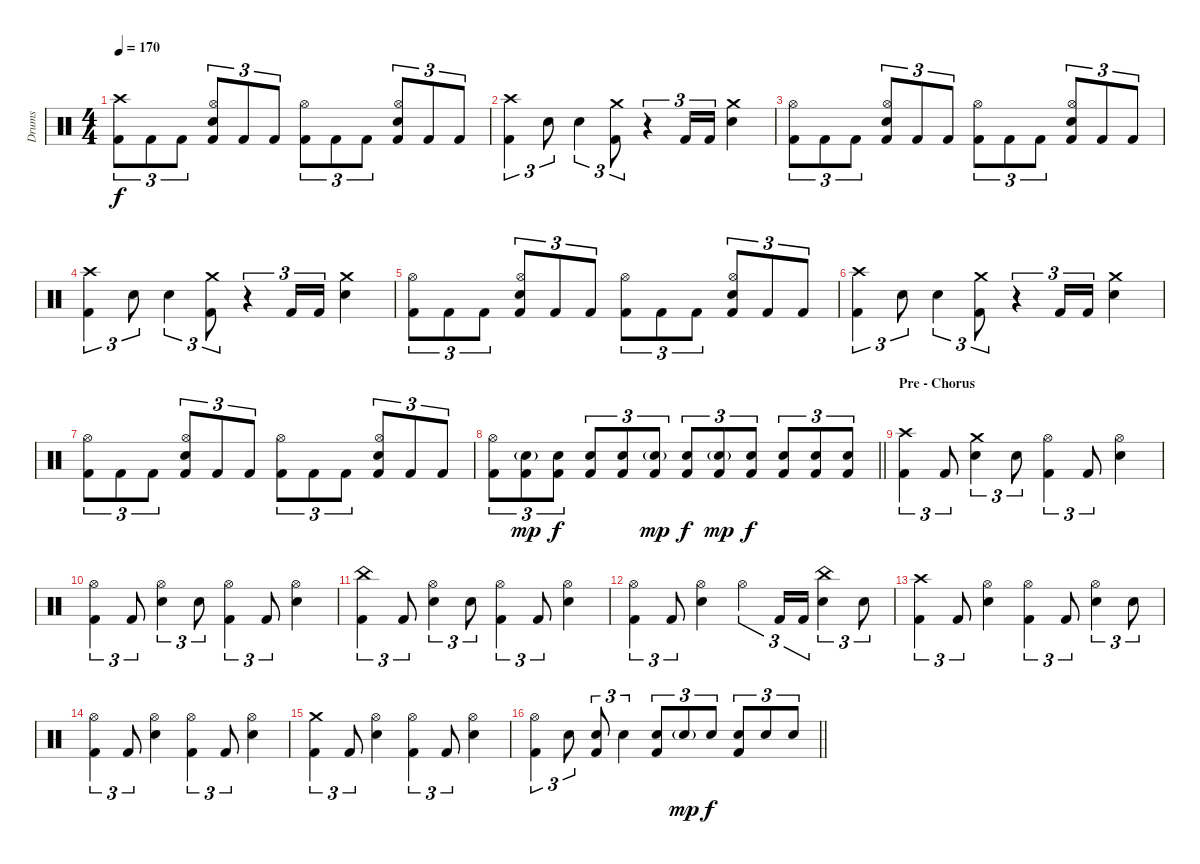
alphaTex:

\track ("Drums" "Drums") {instrument percussion}
\staff {score}
\articulation defaults
\ts (4 4)
\tempo 170
\clef neutral
\ks c
("Crash high (hit)" "Kick (hit) 2").8{tu (3 2) dy f} "Kick (hit) 2".8{tu (3 2)} "Kick (hit) 2".8{tu (3 2)} ("Hi-Hat (open)" "Electric Snare (hit)" "Kick (hit) 2").8{tu (3 2)} "Kick (hit) 2".8{tu (3 2)} "Kick (hit) 2".8{tu (3 2)} ("Hi-Hat (open)" "Kick (hit) 2").8{tu (3 2)} "Kick (hit) 2".8{tu (3 2)} "Kick (hit) 2".8{tu (3 2)} ("Hi-Hat (open)" "Electric Snare (hit)" "Kick (hit) 2").8{tu (3 2)} "Kick (hit) 2".8{tu (3 2)} "Kick (hit) 2".8{tu (3 2)} |
("Crash high (hit)" "Kick (hit) 2").4{tu (3 2)} "Electric Snare (hit)".8{tu (3 2)} "Electric Snare (hit)".4{tu (3 2)} ("Crash medium (hit)" "Kick (hit) 2").8{tu (3 2)} r.4{tu (3 2)} "Kick (hit) 2".16{tu (3 2)} "Kick (hit) 2".16{tu (3 2)} ("Crash medium (hit)" "Electric Snare (hit)").4 |
("Hi-Hat (open)" "Kick (hit) 2").8{tu (3 2)} "Kick (hit) 2".8{tu (3 2)} "Kick (hit) 2".8{tu (3 2)} ("Hi-Hat (open)" "Electric Snare (hit)" "Kick (hit) 2").8{tu (3 2)} "Kick (hit) 2".8{tu (3 2)} "Kick (hit) 2".8{tu (3 2)} ("Hi-Hat (open)" "Kick (hit) 2").8{tu (3 2)} "Kick (hit) 2".8{tu (3 2)} "Kick (hit) 2".8{tu (3 2)} ("Hi-Hat (open)" "Electric Snare (hit)" "Kick (hit) 2").8{tu (3 2)} "Kick (hit) 2".8{tu (3 2)} "Kick (hit) 2".8{tu (3 2)} |
("Crash high (hit)" "Kick (hit) 2").4{tu (3 2)} "Electric Snare (hit)".8{tu (3 2)} "Electric Snare (hit)".4{tu (3 2)} ("Crash medium (hit)" "Kick (hit) 2").8{tu (3 2)} r.4{tu (3 2)} "Kick (hit) 2".16{tu (3 2)} "Kick (hit) 2".16{tu (3 2)} ("Crash medium (hit)" "Electric Snare (hit)").4 |
("Hi-Hat (open)" "Kick (hit) 2").8{tu (3 2)} "Kick (hit) 2".8{tu (3 2)} "Kick (hit) 2".8{tu (3 2)} ("Hi-Hat (open)" "Electric Snare (hit)" "Kick (hit) 2").8{tu (3 2)} "Kick (hit) 2".8{tu (3 2)} "Kick (hit) 2".8{tu (3 2)} ("Hi-Hat (open)" "Kick (hit) 2").8{tu (3 2)} "Kick (hit) 2".8{tu (3 2)} "Kick (hit) 2".8{tu (3 2)} ("Hi-Hat (open)" "Electric Snare (hit)" "Kick (hit) 2").8{tu (3 2)} "Kick (hit) 2".8{tu (3 2)} "Kick (hit) 2".8{tu (3 2)} |
("Crash high (hit)" "Kick (hit) 2").4{tu (3 2)} "Electric Snare (hit)".8{tu (3 2)} "Electric Snare (hit)".4{tu (3 2)} ("Crash medium (hit)" "Kick (hit) 2").8{tu (3 2)} r.4{tu (3 2)} "Kick (hit) 2".16{tu (3 2)} "Kick (hit) 2".16{tu (3 2)} ("Crash medium (hit)" "Electric Snare (hit)").4 |
("Hi-Hat (open)" "Kick (hit) 2").8{tu (3 2)} "Kick (hit) 2".8{tu (3 2)} "Kick (hit) 2".8{tu (3 2)} ("Hi-Hat (open)" "Electric Snare (hit)" "Kick (hit) 2").8{tu (3 2)} "Kick (hit) 2".8{tu (3 2)} "Kick (hit) 2".8{tu (3 2)} ("Hi-Hat (open)" "Kick (hit) 2").8{tu (3 2)} "Kick (hit) 2".8{tu (3 2)} "Kick (hit) 2".8{tu (3 2)} ("Hi-Hat (open)" "Electric Snare (hit)" "Kick (hit) 2").8{tu (3 2)} "Kick (hit) 2".8{tu (3 2)} "Kick (hit) 2".8{tu (3 2)} |
\barLineRight lightlight
("Hi-Hat (open)" "Kick (hit) 2").8{tu (3 2)} ("Electric Snare (hit)"{g} "Kick (hit) 2").8{tu (3 2) dy mp} ("Electric Snare (hit)" "Kick (hit) 2").8{tu (3 2) dy f} ("Electric Snare (hit)" "Kick (hit) 2").8{tu (3 2)} ("Electric Snare (hit)" "Kick (hit) 2").8{tu (3 2)} ("Electric Snare (hit)"{g} "Kick (hit) 2").8{tu (3 2) dy mp} ("Electric Snare (hit)" "Kick (hit) 2").8{tu (3 2) dy f} ("Electric Snare (hit)"{g} "Kick (hit) 2").8{tu (3 2) dy mp} ("Electric Snare (hit)" "Kick (hit) 2").8{tu (3 2) dy f} ("Electric Snare (hit)" "Kick (hit) 2").8{tu (3 2)} ("Electric Snare (hit)" "Kick (hit) 2").8{tu (3 2)} ("Electric Snare (hit)" "Kick (hit) 2").8{tu (3 2)} |
\section ("" "Pre - Chorus")
("Crash high (hit)" "Kick (hit) 2").4{tu (3 2)} "Kick (hit) 2".8{tu (3 2)} ("Crash medium (hit)" "Electric Snare (hit)").4{tu (3 2)} "Electric Snare (hit)".8{tu (3 2)} ("Hi-Hat (open)" "Kick (hit) 2").4{tu (3 2)} "Kick (hit) 2".8{tu (3 2)} ("Hi-Hat (open)" "Electric Snare (hit)").4 |
("Hi-Hat (open)" "Kick (hit) 2").4{tu (3 2)} "Kick (hit) 2".8{tu (3 2)} ("Hi-Hat (open)" "Electric Snare (hit)").4{tu (3 2)} "Electric Snare (hit)".8{tu (3 2)} ("Hi-Hat (open)" "Kick (hit) 2").4{tu (3 2)} "Kick (hit) 2".8{tu (3 2)} ("Hi-Hat (open)" "Electric Snare (hit)").4 |
("China (hit)" "Kick (hit) 2").4{tu (3 2)} "Kick (hit) 2".8{tu (3 2)} ("Hi-Hat (open)" "Electric Snare (hit)").4{tu (3 2)} "Electric Snare (hit)".8{tu (3 2)} ("Hi-Hat (open)" "Kick (hit) 2").4{tu (3 2)} "Kick (hit) 2".8{tu (3 2)} ("Hi-Hat (open)" "Electric Snare (hit)").4 |
("Hi-Hat (open)" "Kick (hit) 2").4{tu (3 2)} "Kick (hit) 2".8{tu (3 2)} ("Hi-Hat (open)" "Electric Snare (hit)").4 "Hi-Hat (open)".4{tu (3 2)} "Kick (hit) 2".16{tu (3 2)} "Kick (hit) 2".16{tu (3 2)} ("China (hit)" "Electric Snare (hit)").4{tu (3 2)} "Electric Snare (hit)".8{tu (3 2)} |
("Crash high (hit)" "Kick (hit) 2").4{tu (3 2)} "Kick (hit) 2".8{tu (3 2)} ("Hi-Hat (open)" "Electric Snare (hit)").4 ("Hi-Hat (open)" "Kick (hit) 2").4{tu (3 2)} "Kick (hit) 2".8{tu (3 2)} ("Hi-Hat (open)" "Electric Snare (hit)").4{tu (3 2)} "Electric Snare (hit)".8{tu (3 2)} |
("Hi-Hat (open)" "Kick (hit) 2").4{tu (3 2)} "Kick (hit) 2".8{tu (3 2)} ("Hi-Hat (open)" "Electric Snare (hit)").4 ("Hi-Hat (open)" "Kick (hit) 2").4{tu (3 2)} "Kick (hit) 2".8{tu (3 2)} ("Hi-Hat (open)" "Electric Snare (hit)").4 |
("Crash medium (hit)" "Kick (hit) 2").4{tu (3 2)} "Kick (hit) 2".8{tu (3 2)} ("Hi-Hat (open)" "Electric Snare (hit)").4 ("Hi-Hat (open)" "Kick (hit) 2").4{tu (3 2)} "Kick (hit) 2".8{tu (3 2)} ("Hi-Hat (open)" "Electric Snare (hit)").4 |
\barLineRight lightlight
("Hi-Hat (open)" "Kick (hit) 2").4{tu (3 2)} "Electric Snare (hit)".8{tu (3 2)} ("Electric Snare (hit)" "Kick (hit) 2").8{tu (3 2)} "Electric Snare (hit)".4{tu (3 2)} ("Electric Snare (hit)" "Kick (hit) 2").8{tu (3 2)} "Electric Snare (hit)"{g}.8{tu (3 2) dy mp} "Electric Snare (hit)".8{tu (3 2) dy f} ("Electric Snare (hit)" "Kick (hit) 2").8{tu (3 2)} "Electric Snare (hit)".8{tu (3 2)} "Electric Snare (hit)".8{tu (3 2)}
